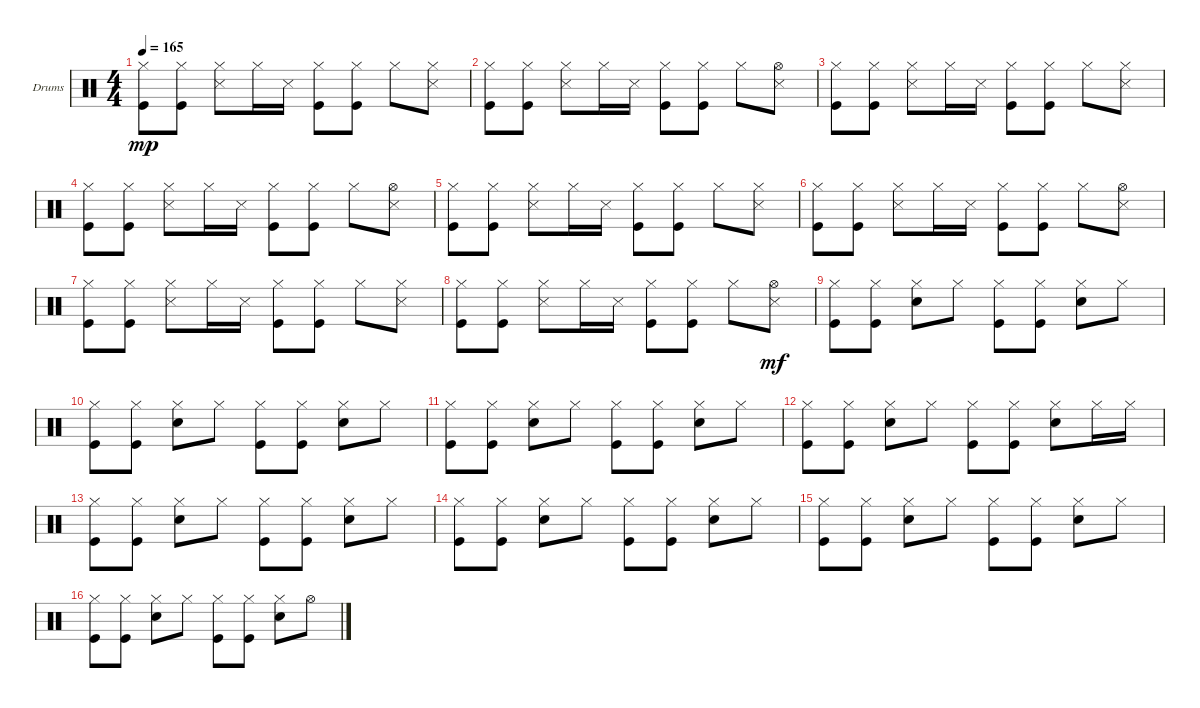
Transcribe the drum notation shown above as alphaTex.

\defaultSystemsLayout 4
\bracketExtendMode groupsimilarinstruments
\firstSystemTrackNameOrientation horizontal
\otherSystemsTrackNameOrientation horizontal
\track ("Drumkit" "Drums") {instrument percussion}
\staff {score}
\articulation defaults
\ts (4 4)
\tempo 165
\clef neutral
\ks c
("Kick (hit)" "Hi-Hat (closed)").8{dy mp} ("Hi-Hat (closed)" "Kick (hit)").8 ("Hi-Hat (closed)" "Snare (side stick) 3").8 "Hi-Hat (closed)".16 "Snare (side stick) 3".16 ("Hi-Hat (closed)" "Kick (hit)").8 ("Hi-Hat (closed)" "Kick (hit)").8 "Hi-Hat (closed)".8 ("Hi-Hat (closed)" "Snare (side stick) 3").8 |
("Hi-Hat (closed)" "Kick (hit)").8 ("Hi-Hat (closed)" "Kick (hit)").8 ("Hi-Hat (closed)" "Snare (side stick) 3").8 "Hi-Hat (closed)".16 "Snare (side stick) 3".16 ("Hi-Hat (closed)" "Kick (hit)").8 ("Hi-Hat (closed)" "Kick (hit)").8 "Hi-Hat (closed)".8 ("Hi-Hat (open)" "Snare (side stick) 3").8 |
("Kick (hit)" "Hi-Hat (closed)").8 ("Hi-Hat (closed)" "Kick (hit)").8 ("Hi-Hat (closed)" "Snare (side stick) 3").8 "Hi-Hat (closed)".16 "Snare (side stick) 3".16 ("Hi-Hat (closed)" "Kick (hit)").8 ("Hi-Hat (closed)" "Kick (hit)").8 "Hi-Hat (closed)".8 ("Hi-Hat (closed)" "Snare (side stick) 3").8 |
("Hi-Hat (closed)" "Kick (hit)").8 ("Hi-Hat (closed)" "Kick (hit)").8 ("Hi-Hat (closed)" "Snare (side stick) 3").8 "Hi-Hat (closed)".16 "Snare (side stick) 3".16 ("Hi-Hat (closed)" "Kick (hit)").8 ("Hi-Hat (closed)" "Kick (hit)").8 "Hi-Hat (closed)".8 ("Hi-Hat (open)" "Snare (side stick) 3").8 |
("Kick (hit)" "Hi-Hat (closed)").8 ("Hi-Hat (closed)" "Kick (hit)").8 ("Hi-Hat (closed)" "Snare (side stick) 3").8 "Hi-Hat (closed)".16 "Snare (side stick) 3".16 ("Hi-Hat (closed)" "Kick (hit)").8 ("Hi-Hat (closed)" "Kick (hit)").8 "Hi-Hat (closed)".8 ("Hi-Hat (closed)" "Snare (side stick) 3").8 |
("Hi-Hat (closed)" "Kick (hit)").8 ("Hi-Hat (closed)" "Kick (hit)").8 ("Hi-Hat (closed)" "Snare (side stick) 3").8 "Hi-Hat (closed)".16 "Snare (side stick) 3".16 ("Hi-Hat (closed)" "Kick (hit)").8 ("Hi-Hat (closed)" "Kick (hit)").8 "Hi-Hat (closed)".8 ("Hi-Hat (open)" "Snare (side stick) 3").8 |
("Kick (hit)" "Hi-Hat (closed)").8 ("Hi-Hat (closed)" "Kick (hit)").8 ("Hi-Hat (closed)" "Snare (side stick) 3").8 "Hi-Hat (closed)".16 "Snare (side stick) 3".16 ("Hi-Hat (closed)" "Kick (hit)").8 ("Hi-Hat (closed)" "Kick (hit)").8 "Hi-Hat (closed)".8 ("Hi-Hat (closed)" "Snare (side stick) 3").8 |
("Hi-Hat (closed)" "Kick (hit)").8 ("Hi-Hat (closed)" "Kick (hit)").8 ("Hi-Hat (closed)" "Snare (side stick) 3").8 "Hi-Hat (closed)".16 "Snare (side stick) 3".16 ("Hi-Hat (closed)" "Kick (hit)").8 ("Hi-Hat (closed)" "Kick (hit)").8 "Hi-Hat (closed)".8 ("Hi-Hat (open)" "Snare (side stick) 3").8{dy mf} |
("Kick (hit)" "Hi-Hat (closed)").8 ("Kick (hit)" "Hi-Hat (closed)").8 ("Snare (hit) 2" "Hi-Hat (closed)").8 "Hi-Hat (closed)".8 ("Kick (hit)" "Hi-Hat (closed)").8 ("Kick (hit)" "Hi-Hat (closed)").8 ("Snare (hit) 2" "Hi-Hat (closed)").8 "Hi-Hat (closed)".8 |
("Kick (hit)" "Hi-Hat (closed)").8 ("Kick (hit)" "Hi-Hat (closed)").8 ("Snare (hit) 2" "Hi-Hat (closed)").8 "Hi-Hat (closed)".8 ("Kick (hit)" "Hi-Hat (closed)").8 ("Kick (hit)" "Hi-Hat (closed)").8 ("Snare (hit) 2" "Hi-Hat (closed)").8 "Hi-Hat (closed)".8 |
("Kick (hit)" "Hi-Hat (closed)").8 ("Kick (hit)" "Hi-Hat (closed)").8 ("Snare (hit) 2" "Hi-Hat (closed)").8 "Hi-Hat (closed)".8 ("Kick (hit)" "Hi-Hat (closed)").8 ("Kick (hit)" "Hi-Hat (closed)").8 ("Snare (hit) 2" "Hi-Hat (closed)").8 "Hi-Hat (closed)".8 |
("Kick (hit)" "Hi-Hat (closed)").8 ("Kick (hit)" "Hi-Hat (closed)").8 ("Snare (hit) 2" "Hi-Hat (closed)").8 "Hi-Hat (closed)".8 ("Kick (hit)" "Hi-Hat (closed)").8 ("Kick (hit)" "Hi-Hat (closed)").8 ("Snare (hit) 2" "Hi-Hat (closed)").8 "Hi-Hat (closed)".16 "Hi-Hat (closed)".16 |
("Kick (hit)" "Hi-Hat (closed)").8 ("Kick (hit)" "Hi-Hat (closed)").8 ("Snare (hit) 2" "Hi-Hat (closed)").8 "Hi-Hat (closed)".8 ("Kick (hit)" "Hi-Hat (closed)").8 ("Kick (hit)" "Hi-Hat (closed)").8 ("Snare (hit) 2" "Hi-Hat (closed)").8 "Hi-Hat (closed)".8 |
("Kick (hit)" "Hi-Hat (closed)").8 ("Kick (hit)" "Hi-Hat (closed)").8 ("Snare (hit) 2" "Hi-Hat (closed)").8 "Hi-Hat (closed)".8 ("Kick (hit)" "Hi-Hat (closed)").8 ("Kick (hit)" "Hi-Hat (closed)").8 ("Snare (hit) 2" "Hi-Hat (closed)").8 "Hi-Hat (closed)".8 |
("Kick (hit)" "Hi-Hat (closed)").8 ("Kick (hit)" "Hi-Hat (closed)").8 ("Snare (hit) 2" "Hi-Hat (closed)").8 "Hi-Hat (closed)".8 ("Kick (hit)" "Hi-Hat (closed)").8 ("Kick (hit)" "Hi-Hat (closed)").8 ("Snare (hit) 2" "Hi-Hat (closed)").8 "Hi-Hat (closed)".8 |
("Kick (hit)" "Hi-Hat (closed)").8 ("Kick (hit)" "Hi-Hat (closed)").8 ("Snare (hit) 2" "Hi-Hat (closed)").8 "Hi-Hat (closed)".8 ("Kick (hit)" "Hi-Hat (closed)").8 ("Kick (hit)" "Hi-Hat (closed)").8 ("Snare (hit) 2" "Hi-Hat (closed)").8 "Hi-Hat (open)".8
